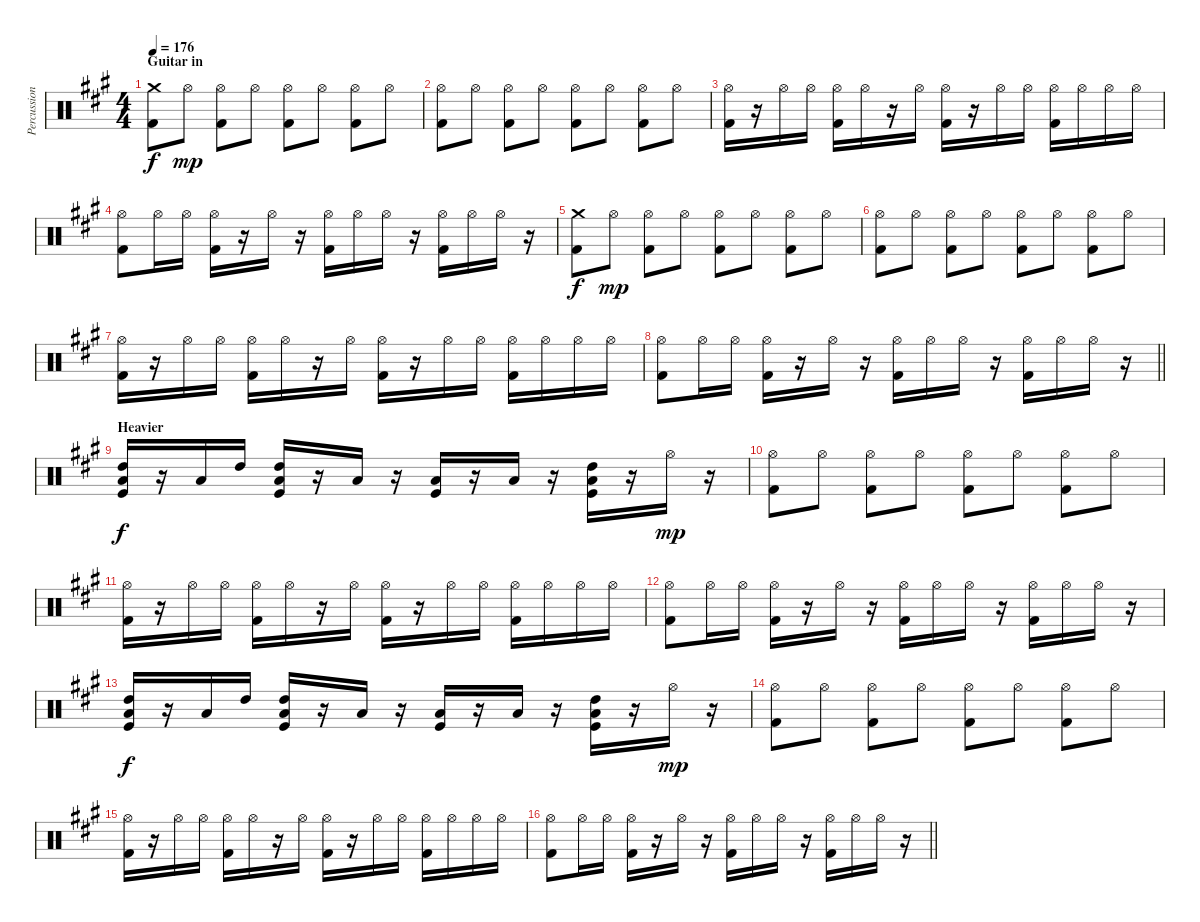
\track ("Percussion" "Percussion") {instrument percussion}
\staff {score}
\articulation defaults
\ts (4 4)
\section ("" "Guitar in")
\tempo 176
\clef neutral
\ks a
("Crash medium (hit)" "Kick (hit) 2").8{dy f} "Hi-Hat (open)".8{dy mp} ("Hi-Hat (open)" "Kick (hit) 2").8 "Hi-Hat (open)".8 ("Hi-Hat (open)" "Kick (hit) 2").8 "Hi-Hat (open)".8 ("Hi-Hat (open)" "Kick (hit) 2").8 "Hi-Hat (open)".8 |
("Hi-Hat (open)" "Kick (hit) 2").8 "Hi-Hat (open)".8 ("Hi-Hat (open)" "Kick (hit) 2").8 "Hi-Hat (open)".8 ("Hi-Hat (open)" "Kick (hit) 2").8 "Hi-Hat (open)".8 ("Hi-Hat (open)" "Kick (hit) 2").8 "Hi-Hat (open)".8 |
("Hi-Hat (open)" "Kick (hit) 2").16 r.16 "Hi-Hat (open)".16 "Hi-Hat (open)".16 ("Hi-Hat (open)" "Kick (hit) 2").16 "Hi-Hat (open)".16 r.16 "Hi-Hat (open)".16 ("Hi-Hat (open)" "Kick (hit) 2").16 r.16 "Hi-Hat (open)".16 "Hi-Hat (open)".16 ("Hi-Hat (open)" "Kick (hit) 2").16 "Hi-Hat (open)".16 "Hi-Hat (open)".16 "Hi-Hat (open)".16 |
("Hi-Hat (open)" "Kick (hit) 2").8 "Hi-Hat (open)".16 "Hi-Hat (open)".16 ("Hi-Hat (open)" "Kick (hit) 2").16 r.16 "Hi-Hat (open)".16 r.16 ("Hi-Hat (open)" "Kick (hit) 2").16 "Hi-Hat (open)".16 "Hi-Hat (open)".16 r.16 ("Hi-Hat (open)" "Kick (hit) 2").16 "Hi-Hat (open)".16 "Hi-Hat (open)".16 r.16 |
("Crash medium (hit)" "Kick (hit) 2").8{dy f} "Hi-Hat (open)".8{dy mp} ("Hi-Hat (open)" "Kick (hit) 2").8 "Hi-Hat (open)".8 ("Hi-Hat (open)" "Kick (hit) 2").8 "Hi-Hat (open)".8 ("Hi-Hat (open)" "Kick (hit) 2").8 "Hi-Hat (open)".8 |
("Hi-Hat (open)" "Kick (hit) 2").8 "Hi-Hat (open)".8 ("Hi-Hat (open)" "Kick (hit) 2").8 "Hi-Hat (open)".8 ("Hi-Hat (open)" "Kick (hit) 2").8 "Hi-Hat (open)".8 ("Hi-Hat (open)" "Kick (hit) 2").8 "Hi-Hat (open)".8 |
("Hi-Hat (open)" "Kick (hit) 2").16 r.16 "Hi-Hat (open)".16 "Hi-Hat (open)".16 ("Hi-Hat (open)" "Kick (hit) 2").16 "Hi-Hat (open)".16 r.16 "Hi-Hat (open)".16 ("Hi-Hat (open)" "Kick (hit) 2").16 r.16 "Hi-Hat (open)".16 "Hi-Hat (open)".16 ("Hi-Hat (open)" "Kick (hit) 2").16 "Hi-Hat (open)".16 "Hi-Hat (open)".16 "Hi-Hat (open)".16 |
\barLineRight lightlight
("Hi-Hat (open)" "Kick (hit) 2").8 "Hi-Hat (open)".16 "Hi-Hat (open)".16 ("Hi-Hat (open)" "Kick (hit) 2").16 r.16 "Hi-Hat (open)".16 r.16 ("Hi-Hat (open)" "Kick (hit) 2").16 "Hi-Hat (open)".16 "Hi-Hat (open)".16 r.16 ("Hi-Hat (open)" "Kick (hit) 2").16 "Hi-Hat (open)".16 "Hi-Hat (open)".16 r.16 |
\section ("" "Heavier")
("High Tom (hit)" "Low Tom (hit)" "Kick (hit)").16{dy f} r.16 "Low Tom (hit)".16 "High Tom (hit)".16 ("High Tom (hit)" "Low Tom (hit)" "Kick (hit)").16 r.16 "Low Tom (hit)".16 r.16 ("Low Tom (hit)" "Kick (hit)").16 r.16 "Low Tom (hit)".16 r.16 ("High Tom (hit)" "Low Tom (hit)" "Kick (hit)").16 r.16 "Hi-Hat (open)".16{dy mp} r.16 |
("Hi-Hat (open)" "Kick (hit) 2").8 "Hi-Hat (open)".8 ("Hi-Hat (open)" "Kick (hit) 2").8 "Hi-Hat (open)".8 ("Hi-Hat (open)" "Kick (hit) 2").8 "Hi-Hat (open)".8 ("Hi-Hat (open)" "Kick (hit) 2").8 "Hi-Hat (open)".8 |
("Hi-Hat (open)" "Kick (hit) 2").16 r.16 "Hi-Hat (open)".16 "Hi-Hat (open)".16 ("Hi-Hat (open)" "Kick (hit) 2").16 "Hi-Hat (open)".16 r.16 "Hi-Hat (open)".16 ("Hi-Hat (open)" "Kick (hit) 2").16 r.16 "Hi-Hat (open)".16 "Hi-Hat (open)".16 ("Hi-Hat (open)" "Kick (hit) 2").16 "Hi-Hat (open)".16 "Hi-Hat (open)".16 "Hi-Hat (open)".16 |
("Hi-Hat (open)" "Kick (hit) 2").8 "Hi-Hat (open)".16 "Hi-Hat (open)".16 ("Hi-Hat (open)" "Kick (hit) 2").16 r.16 "Hi-Hat (open)".16 r.16 ("Hi-Hat (open)" "Kick (hit) 2").16 "Hi-Hat (open)".16 "Hi-Hat (open)".16 r.16 ("Hi-Hat (open)" "Kick (hit) 2").16 "Hi-Hat (open)".16 "Hi-Hat (open)".16 r.16 |
("High Tom (hit)" "Low Tom (hit)" "Kick (hit)").16{dy f} r.16 "Low Tom (hit)".16 "High Tom (hit)".16 ("High Tom (hit)" "Low Tom (hit)" "Kick (hit)").16 r.16 "Low Tom (hit)".16 r.16 ("Low Tom (hit)" "Kick (hit)").16 r.16 "Low Tom (hit)".16 r.16 ("High Tom (hit)" "Low Tom (hit)" "Kick (hit)").16 r.16 "Hi-Hat (open)".16{dy mp} r.16 |
("Hi-Hat (open)" "Kick (hit) 2").8 "Hi-Hat (open)".8 ("Hi-Hat (open)" "Kick (hit) 2").8 "Hi-Hat (open)".8 ("Hi-Hat (open)" "Kick (hit) 2").8 "Hi-Hat (open)".8 ("Hi-Hat (open)" "Kick (hit) 2").8 "Hi-Hat (open)".8 |
("Hi-Hat (open)" "Kick (hit) 2").16 r.16 "Hi-Hat (open)".16 "Hi-Hat (open)".16 ("Hi-Hat (open)" "Kick (hit) 2").16 "Hi-Hat (open)".16 r.16 "Hi-Hat (open)".16 ("Hi-Hat (open)" "Kick (hit) 2").16 r.16 "Hi-Hat (open)".16 "Hi-Hat (open)".16 ("Hi-Hat (open)" "Kick (hit) 2").16 "Hi-Hat (open)".16 "Hi-Hat (open)".16 "Hi-Hat (open)".16 |
\barLineRight lightlight
("Hi-Hat (open)" "Kick (hit) 2").8 "Hi-Hat (open)".16 "Hi-Hat (open)".16 ("Hi-Hat (open)" "Kick (hit) 2").16 r.16 "Hi-Hat (open)".16 r.16 ("Hi-Hat (open)" "Kick (hit) 2").16 "Hi-Hat (open)".16 "Hi-Hat (open)".16 r.16 ("Hi-Hat (open)" "Kick (hit) 2").16 "Hi-Hat (open)".16 "Hi-Hat (open)".16 r.16
